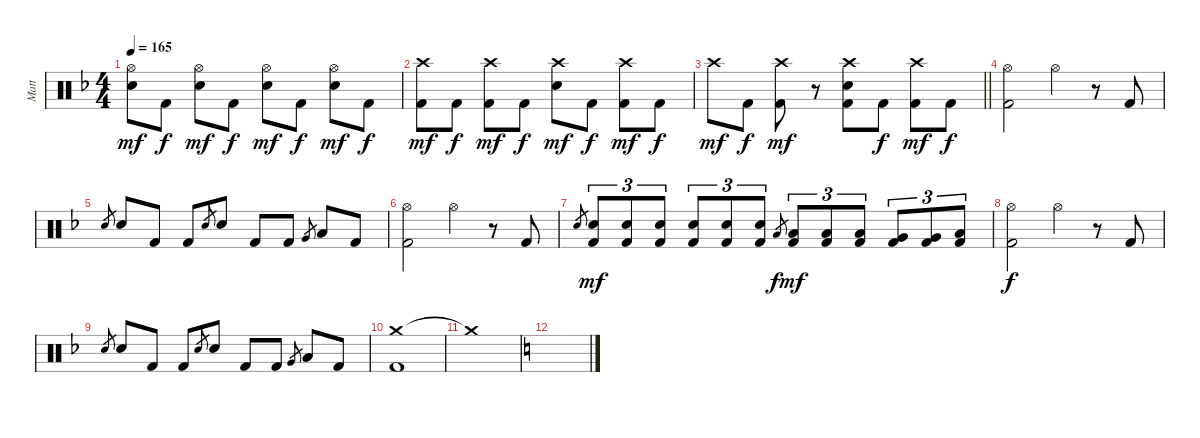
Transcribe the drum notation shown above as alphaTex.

\track ("Matt" "Matt") {instrument percussion}
\staff {score}
\articulation defaults
\ts (4 4)
\tempo 165
\clef neutral
\ks f
("Hi-Hat (open)" "Electric Snare (hit)").8{dy mf} "Kick (hit) 2".8{dy f} ("Hi-Hat (open)" "Electric Snare (hit)").8{dy mf} "Kick (hit) 2".8{dy f} ("Hi-Hat (open)" "Electric Snare (hit)").8{dy mf} "Kick (hit) 2".8{dy f} ("Hi-Hat (open)" "Electric Snare (hit)").8{dy mf} "Kick (hit) 2".8{dy f} |
("Crash high (hit)" "Kick (hit) 2").8{dy mf} "Kick (hit) 2".8{dy f} ("Crash high (hit)" "Kick (hit) 2").8{dy mf} "Kick (hit) 2".8{dy f} ("Crash high (hit)" "Electric Snare (hit)").8{dy mf} "Kick (hit) 2".8{dy f} ("Crash high (hit)" "Kick (hit) 2").8{dy mf} "Kick (hit) 2".8{dy f} |
\barLineRight lightlight "Crash high (hit)".8{dy mf} "Kick (hit) 2".8{dy f}
("Crash high (hit)" "Kick (hit) 2").8{dy mf} r.8 ("Crash high (hit)" "Electric Snare (hit)" "Kick (hit) 2").8 "Kick (hit) 2".8{dy f} ("Crash high (hit)" "Kick (hit) 2").8{dy mf} "Kick (hit) 2".8{dy f} |
("Hi-Hat (open)" "Kick (hit) 2").2 "Hi-Hat (open)".4 r.8 "Kick (hit) 2".8 |
"Electric Snare (hit)".8{gr} "Electric Snare (hit)".8 "Kick (hit) 2".8 "Kick (hit) 2".8 "Electric Snare (hit)".8{gr} "Electric Snare (hit)".8 "Kick (hit) 2".8 "Kick (hit) 2".8 "Very Low Tom (hit)".8{gr} "Low Tom (hit)".8 "Kick (hit) 2".8 |
("Hi-Hat (open)" "Kick (hit) 2").2 "Hi-Hat (open)".4 r.8 "Kick (hit) 2".8 |
"Electric Snare (hit)".8{gr} ("Electric Snare (hit)" "Kick (hit) 2").8{tu (3 2) dy mf} ("Electric Snare (hit)" "Kick (hit) 2").8{tu (3 2)} ("Electric Snare (hit)" "Kick (hit) 2").8{tu (3 2)} ("Electric Snare (hit)" "Kick (hit) 2").8{tu (3 2)} ("Electric Snare (hit)" "Kick (hit) 2").8{tu (3 2)} ("Electric Snare (hit)" "Kick (hit) 2").8{tu (3 2)} "Low Tom (hit)".8{gr dy f} ("Low Tom (hit)" "Kick (hit) 2").8{tu (3 2) dy mf} ("Low Tom (hit)" "Kick (hit) 2").8{tu (3 2)} ("Low Tom (hit)" "Kick (hit) 2").8{tu (3 2)} ("Very Low Tom (hit)" "Kick (hit) 2").8{tu (3 2)} ("Very Low Tom (hit)" "Kick (hit) 2").8{tu (3 2)} ("Low Floor Tom (hit)" "Kick (hit) 2").8{tu (3 2)} |
("Hi-Hat (open)" "Kick (hit) 2").2{dy f} "Hi-Hat (open)".4 r.8 "Kick (hit) 2".8 |
"Electric Snare (hit)".8{gr} "Electric Snare (hit)".8 "Kick (hit) 2".8 "Kick (hit) 2".8 "Electric Snare (hit)".8{gr} "Electric Snare (hit)".8 "Kick (hit) 2".8 "Kick (hit) 2".8 "Very Low Tom (hit)".8{gr} "Low Tom (hit)".8 "Kick (hit) 2".8 |
("Crash medium (hit)" "Kick (hit) 2").1 |
"Crash medium (hit)"{t}.1 |
\ks c
